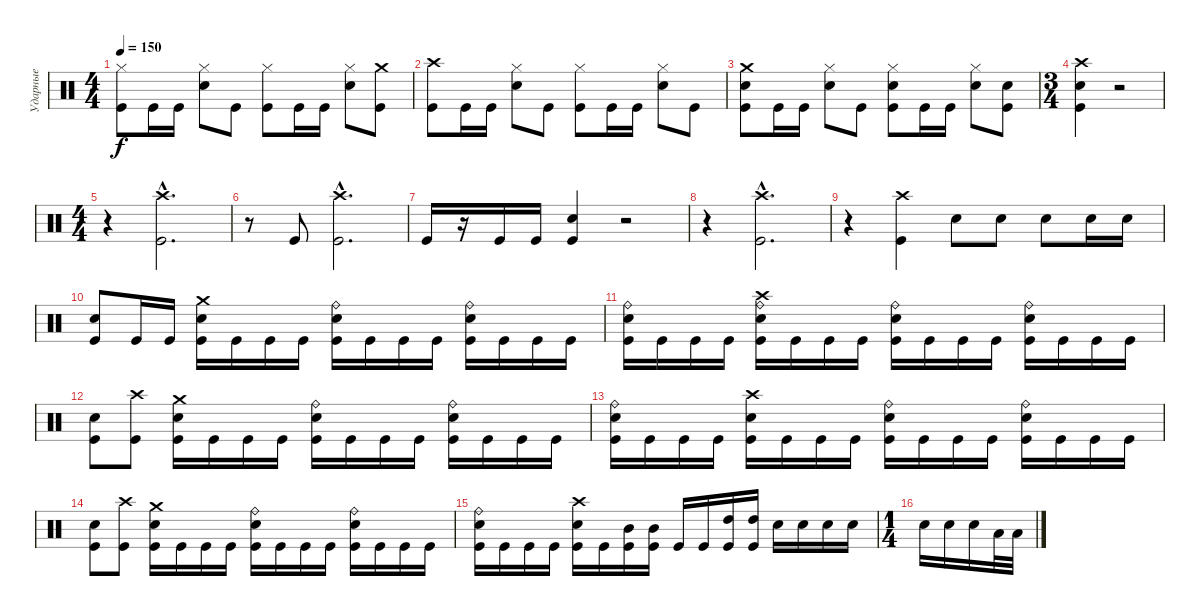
\track ("Ударные" "Ударные") {instrument percussion}
\staff {score}
\articulation defaults
\ts (4 4)
\tempo 150
\clef neutral
\ks c
("Hi-Hat (closed)" "Kick (hit)").8{dy f} "Kick (hit)".16 "Kick (hit)".16 ("Hi-Hat (closed)" "Electric Snare (hit)").8 "Kick (hit)".8 ("Hi-Hat (closed)" "Kick (hit)").8 "Kick (hit)".16 "Kick (hit)".16 ("Hi-Hat (closed)" "Electric Snare (hit)").8 ("Crash medium (hit)" "Kick (hit)").8 |
("Crash high (hit)" "Kick (hit)").8 "Kick (hit)".16 "Kick (hit)".16 ("Hi-Hat (closed)" "Electric Snare (hit)").8 "Kick (hit)".8 ("Hi-Hat (closed)" "Kick (hit)").8 "Kick (hit)".16 "Kick (hit)".16 ("Hi-Hat (closed)" "Electric Snare (hit)").8 "Kick (hit)".8 |
("Crash medium (hit)" "Electric Snare (hit)" "Kick (hit)").8 "Kick (hit)".16 "Kick (hit)".16 ("Hi-Hat (closed)" "Electric Snare (hit)").8 "Kick (hit)".8 ("Hi-Hat (closed)" "Electric Snare (hit)" "Kick (hit)").8 "Kick (hit)".16 "Kick (hit)".16 ("Hi-Hat (closed)" "Electric Snare (hit)").8 ("Electric Snare (hit)" "Kick (hit)").8 |
\ts (3 4)
("Crash high (hit)" "Electric Snare (hit)" "Kick (hit)").4 r.2 |
\ts (4 4)
r.4 ("Crash high (hit)"{hac} "Kick (hit)"{hac}).2{d} |
r.8 "Kick (hit)".8 ("Crash high (hit)"{hac} "Kick (hit)"{hac}).2{d} |
"Kick (hit)".16 r.16 "Kick (hit)".16 "Kick (hit)".16 ("Electric Snare (hit)" "Kick (hit)").4 r.2 |
r.4 ("Crash high (hit)"{hac} "Kick (hit)"{hac}).2{d} |
r.4 ("Crash high (hit)" "Kick (hit)").4 "Electric Snare (hit)".8 "Electric Snare (hit)".8 "Electric Snare (hit)".8 "Electric Snare (hit)".16 "Electric Snare (hit)".16 |
("Electric Snare (hit)" "Kick (hit)").8 "Kick (hit)".16 "Kick (hit)".16 ("Crash medium (hit)" "Electric Snare (hit)" "Kick (hit)").16 "Kick (hit)".16 "Kick (hit)".16 "Kick (hit)".16 ("Ride (bell)" "Electric Snare (hit)" "Kick (hit)").16 "Kick (hit)".16 "Kick (hit)".16 "Kick (hit)".16 ("Ride (bell)" "Electric Snare (hit)" "Kick (hit)").16 "Kick (hit)".16 "Kick (hit)".16 "Kick (hit)".16 |
("Ride (bell)" "Electric Snare (hit)" "Kick (hit)").16 "Kick (hit)".16 "Kick (hit)".16 "Kick (hit)".16 ("Crash high (hit)" "Ride (bell)" "Electric Snare (hit)" "Kick (hit)").16 "Kick (hit)".16 "Kick (hit)".16 "Kick (hit)".16 ("Ride (bell)" "Electric Snare (hit)" "Kick (hit)").16 "Kick (hit)".16 "Kick (hit)".16 "Kick (hit)".16 ("Ride (bell)" "Electric Snare (hit)" "Kick (hit)").16 "Kick (hit)".16 "Kick (hit)".16 "Kick (hit)".16 |
("Electric Snare (hit)" "Kick (hit)").8 ("Crash high (hit)" "Kick (hit)").8 ("Crash medium (hit)" "Electric Snare (hit)" "Kick (hit)").16 "Kick (hit)".16 "Kick (hit)".16 "Kick (hit)".16 ("Ride (bell)" "Electric Snare (hit)" "Kick (hit)").16 "Kick (hit)".16 "Kick (hit)".16 "Kick (hit)".16 ("Ride (bell)" "Electric Snare (hit)" "Kick (hit)").16 "Kick (hit)".16 "Kick (hit)".16 "Kick (hit)".16 |
("Ride (bell)" "Electric Snare (hit)" "Kick (hit)").16 "Kick (hit)".16 "Kick (hit)".16 "Kick (hit)".16 ("Crash high (hit)" "Electric Snare (hit)" "Kick (hit)").16 "Kick (hit)".16 "Kick (hit)".16 "Kick (hit)".16 ("Ride (bell)" "Electric Snare (hit)" "Kick (hit)").16 "Kick (hit)".16 "Kick (hit)".16 "Kick (hit)".16 ("Ride (bell)" "Electric Snare (hit)" "Kick (hit)").16 "Kick (hit)".16 "Kick (hit)".16 "Kick (hit)".16 |
("Electric Snare (hit)" "Kick (hit)").8 ("Crash high (hit)" "Kick (hit)").8 ("Crash medium (hit)" "Electric Snare (hit)" "Kick (hit)").16 "Kick (hit)".16 "Kick (hit)".16 "Kick (hit)".16 ("Ride (bell)" "Electric Snare (hit)" "Kick (hit)").16 "Kick (hit)".16 "Kick (hit)".16 "Kick (hit)".16 ("Ride (bell)" "Electric Snare (hit)" "Kick (hit)").16 "Kick (hit)".16 "Kick (hit)".16 "Kick (hit)".16 |
("Ride (bell)" "Electric Snare (hit)" "Kick (hit)").16 "Kick (hit)".16 "Kick (hit)".16 "Kick (hit)".16 ("Crash high (hit)" "Electric Snare (hit)" "Kick (hit)").16 "Kick (hit)".16 ("Mid Tom (hit)" "Kick (hit)").16 ("Mid Tom (hit)" "Kick (hit)").16 "Kick (hit)".16 "Kick (hit)".16 ("High Tom (hit)" "Kick (hit)").16 ("High Tom (hit)" "Kick (hit)").16 "Electric Snare (hit)".16 "Electric Snare (hit)".16 "Electric Snare (hit)".16 "Electric Snare (hit)".16 |
\ts (1 4)
"Electric Snare (hit)".16 "Electric Snare (hit)".16 "Electric Snare (hit)".16 "Low Tom (hit)".32 "Low Tom (hit)".32
